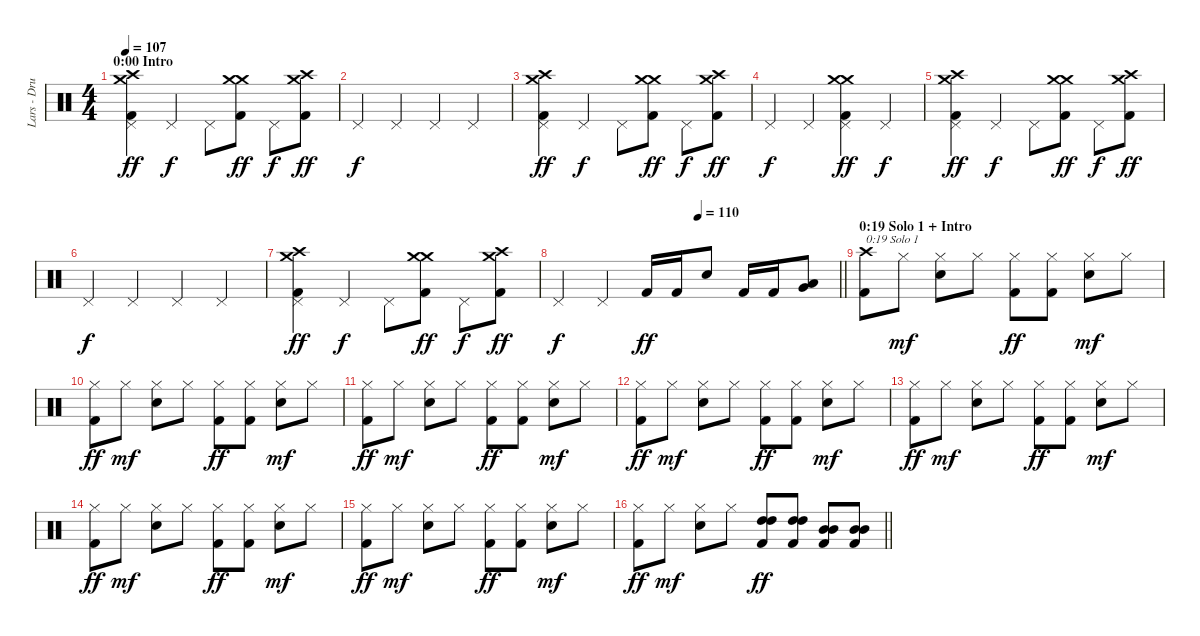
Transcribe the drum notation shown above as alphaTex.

\track ("Lars - Drums + tempi marker" "Lars - Dru") {instrument percussion}
\staff {score}
\articulation defaults
\ts (4 4)
\section ("" "0:00 Intro")
\tempo 107
\clef neutral
\ks c
("Crash high (hit)" "Crash medium (hit)" "Pedal Hi-Hat (hit)" "Kick (hit) 2").4{dy ff} "Pedal Hi-Hat (hit)".4{dy f} "Pedal Hi-Hat (hit)".8 ("Crash medium (hit)" "Crash medium (hit)" "Kick (hit) 2").8{dy ff} "Pedal Hi-Hat (hit)".8{dy f} ("Crash high (hit)" "Crash medium (hit)" "Kick (hit) 2").8{dy ff} |
"Pedal Hi-Hat (hit)".4{dy f} "Pedal Hi-Hat (hit)".4 "Pedal Hi-Hat (hit)".4 "Pedal Hi-Hat (hit)".4 |
("Crash high (hit)" "Crash medium (hit)" "Pedal Hi-Hat (hit)" "Kick (hit) 2").4{dy ff} "Pedal Hi-Hat (hit)".4{dy f} "Pedal Hi-Hat (hit)".8 ("Crash medium (hit)" "Crash medium (hit)" "Kick (hit) 2").8{dy ff} "Pedal Hi-Hat (hit)".8{dy f} ("Crash high (hit)" "Crash medium (hit)" "Kick (hit) 2").8{dy ff} |
"Pedal Hi-Hat (hit)".4{dy f} "Pedal Hi-Hat (hit)".4 ("Crash medium (hit)" "Crash medium (hit)" "Pedal Hi-Hat (hit)" "Kick (hit) 2").4{dy ff} "Pedal Hi-Hat (hit)".4{dy f} |
("Crash high (hit)" "Crash medium (hit)" "Pedal Hi-Hat (hit)" "Kick (hit) 2").4{dy ff} "Pedal Hi-Hat (hit)".4{dy f} "Pedal Hi-Hat (hit)".8 ("Crash medium (hit)" "Crash medium (hit)" "Kick (hit) 2").8{dy ff} "Pedal Hi-Hat (hit)".8{dy f} ("Crash high (hit)" "Crash medium (hit)" "Kick (hit) 2").8{dy ff} |
"Pedal Hi-Hat (hit)".4{dy f} "Pedal Hi-Hat (hit)".4 "Pedal Hi-Hat (hit)".4 "Pedal Hi-Hat (hit)".4 |
("Crash high (hit)" "Crash medium (hit)" "Pedal Hi-Hat (hit)" "Kick (hit) 2").4{dy ff} "Pedal Hi-Hat (hit)".4{dy f} "Pedal Hi-Hat (hit)".8 ("Crash medium (hit)" "Crash medium (hit)" "Kick (hit) 2").8{dy ff} "Pedal Hi-Hat (hit)".8{dy f} ("Crash high (hit)" "Crash medium (hit)" "Kick (hit) 2").8{dy ff} |
\tempo (110 0.5)
\barLineRight lightlight "Pedal Hi-Hat (hit)".4{dy f} "Pedal Hi-Hat (hit)".4 "Kick (hit) 2".16{dy ff} "Kick (hit) 2".16 "Electric Snare (hit)".8 "Kick (hit) 2".16 "Kick (hit) 2".16
("Very Low Tom (hit)" "Low Floor Tom (hit)").8 |
\section ("" "0:19 Solo 1 + Intro")
("Crash high (hit)" "Kick (hit) 2").8{txt "0:19 Solo 1"} "Hi-Hat (closed)".8{dy mf} ("Electric Snare (hit)" "Hi-Hat (closed)").8 "Hi-Hat (closed)".8 ("Hi-Hat (closed)" "Kick (hit) 2").8{dy ff} ("Hi-Hat (closed)" "Kick (hit) 2").8 ("Electric Snare (hit)" "Hi-Hat (closed)").8{dy mf} "Hi-Hat (closed)".8 |
("Hi-Hat (closed)" "Kick (hit) 2").8{dy ff} "Hi-Hat (closed)".8{dy mf} ("Electric Snare (hit)" "Hi-Hat (closed)").8 "Hi-Hat (closed)".8 ("Hi-Hat (closed)" "Kick (hit) 2").8{dy ff} ("Hi-Hat (closed)" "Kick (hit) 2").8 ("Electric Snare (hit)" "Hi-Hat (closed)").8{dy mf} "Hi-Hat (closed)".8 |
("Hi-Hat (closed)" "Kick (hit) 2").8{dy ff} "Hi-Hat (closed)".8{dy mf} ("Electric Snare (hit)" "Hi-Hat (closed)").8 "Hi-Hat (closed)".8 ("Hi-Hat (closed)" "Kick (hit) 2").8{dy ff} ("Hi-Hat (closed)" "Kick (hit) 2").8 ("Electric Snare (hit)" "Hi-Hat (closed)").8{dy mf} "Hi-Hat (closed)".8 |
("Hi-Hat (closed)" "Kick (hit) 2").8{dy ff} "Hi-Hat (closed)".8{dy mf} ("Electric Snare (hit)" "Hi-Hat (closed)").8 "Hi-Hat (closed)".8 ("Hi-Hat (closed)" "Kick (hit) 2").8{dy ff} ("Hi-Hat (closed)" "Kick (hit) 2").8 ("Electric Snare (hit)" "Hi-Hat (closed)").8{dy mf} "Hi-Hat (closed)".8 |
("Hi-Hat (closed)" "Kick (hit) 2").8{dy ff} "Hi-Hat (closed)".8{dy mf} ("Electric Snare (hit)" "Hi-Hat (closed)").8 "Hi-Hat (closed)".8 ("Hi-Hat (closed)" "Kick (hit) 2").8{dy ff} ("Hi-Hat (closed)" "Kick (hit) 2").8 ("Electric Snare (hit)" "Hi-Hat (closed)").8{dy mf} "Hi-Hat (closed)".8 |
("Hi-Hat (closed)" "Kick (hit) 2").8{dy ff} "Hi-Hat (closed)".8{dy mf} ("Electric Snare (hit)" "Hi-Hat (closed)").8 "Hi-Hat (closed)".8 ("Hi-Hat (closed)" "Kick (hit) 2").8{dy ff} ("Hi-Hat (closed)" "Kick (hit) 2").8 ("Electric Snare (hit)" "Hi-Hat (closed)").8{dy mf} "Hi-Hat (closed)".8 |
("Hi-Hat (closed)" "Kick (hit) 2").8{dy ff} "Hi-Hat (closed)".8{dy mf} ("Electric Snare (hit)" "Hi-Hat (closed)").8 "Hi-Hat (closed)".8 ("Hi-Hat (closed)" "Kick (hit) 2").8{dy ff} ("Hi-Hat (closed)" "Kick (hit) 2").8 ("Electric Snare (hit)" "Hi-Hat (closed)").8{dy mf} "Hi-Hat (closed)".8 |
\barLineRight lightlight
("Hi-Hat (closed)" "Kick (hit) 2").8{dy ff} "Hi-Hat (closed)".8{dy mf} ("Electric Snare (hit)" "Hi-Hat (closed)").8 "Hi-Hat (closed)".8 ("High Tom (hit)" "High Tom (hit)" "Kick (hit) 2").8{dy ff} ("High Tom (hit)" "High Tom (hit)" "Kick (hit) 2").8 ("Mid Tom (hit)" "Mid Tom (hit)" "Kick (hit) 2").8 ("Mid Tom (hit)" "Mid Tom (hit)" "Kick (hit) 2").8
